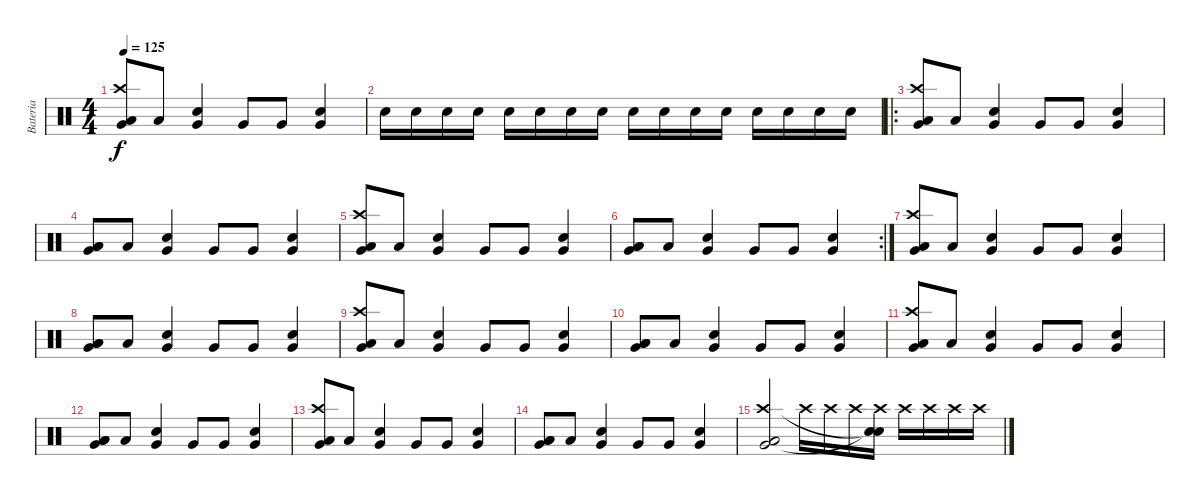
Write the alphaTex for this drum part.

\track ("Bateria" "Bateria") {instrument percussion}
\staff {score}
\articulation defaults
\ts (4 4)
\tempo 125
\clef neutral
\ks c
("Low Tom (hit)" "Crash high (hit)" "Very Low Tom (hit)").8{dy f} "Low Floor Tom (hit)".8 ("Electric Snare (hit)" "Very Low Tom (hit)").4 "Very Low Tom (hit)".8 "Very Low Tom (hit)".8 ("Electric Snare (hit)" "Very Low Tom (hit)").4 |
"Electric Snare (hit)".16 "Electric Snare (hit)".16 "Electric Snare (hit)".16 "Electric Snare (hit)".16 "Electric Snare (hit)".16 "Electric Snare (hit)".16 "Electric Snare (hit)".16 "Electric Snare (hit)".16 "Electric Snare (hit)".16 "Electric Snare (hit)".16 "Electric Snare (hit)".16 "Electric Snare (hit)".16 "Electric Snare (hit)".16 "Electric Snare (hit)".16 "Electric Snare (hit)".16 "Electric Snare (hit)".16 |
\ro
("Low Tom (hit)" "Crash high (hit)" "Very Low Tom (hit)").8 "Low Floor Tom (hit)".8 ("Electric Snare (hit)" "Very Low Tom (hit)").4 "Very Low Tom (hit)".8 "Very Low Tom (hit)".8 ("Electric Snare (hit)" "Very Low Tom (hit)").4 |
("Low Tom (hit)" "Low Floor Tom (hit)" "Very Low Tom (hit)").8 "Low Floor Tom (hit)".8 ("Electric Snare (hit)" "Very Low Tom (hit)").4 "Very Low Tom (hit)".8 "Very Low Tom (hit)".8 ("Electric Snare (hit)" "Very Low Tom (hit)").4 |
("Low Tom (hit)" "Crash high (hit)" "Very Low Tom (hit)").8 "Low Floor Tom (hit)".8 ("Electric Snare (hit)" "Very Low Tom (hit)").4 "Very Low Tom (hit)".8 "Very Low Tom (hit)".8 ("Electric Snare (hit)" "Very Low Tom (hit)").4 |
\rc 2
("Low Tom (hit)" "Low Floor Tom (hit)" "Very Low Tom (hit)").8 "Low Floor Tom (hit)".8 ("Electric Snare (hit)" "Very Low Tom (hit)").4 "Very Low Tom (hit)".8 "Very Low Tom (hit)".8 ("Electric Snare (hit)" "Very Low Tom (hit)").4 |
("Low Tom (hit)" "Crash high (hit)" "Very Low Tom (hit)").8 "Low Floor Tom (hit)".8 ("Electric Snare (hit)" "Very Low Tom (hit)").4 "Very Low Tom (hit)".8 "Very Low Tom (hit)".8 ("Electric Snare (hit)" "Very Low Tom (hit)").4 |
("Low Tom (hit)" "Low Floor Tom (hit)" "Very Low Tom (hit)").8 "Low Floor Tom (hit)".8 ("Electric Snare (hit)" "Very Low Tom (hit)").4 "Very Low Tom (hit)".8 "Very Low Tom (hit)".8 ("Electric Snare (hit)" "Very Low Tom (hit)").4 |
("Low Tom (hit)" "Crash high (hit)" "Very Low Tom (hit)").8 "Low Floor Tom (hit)".8 ("Electric Snare (hit)" "Very Low Tom (hit)").4 "Very Low Tom (hit)".8 "Very Low Tom (hit)".8 ("Electric Snare (hit)" "Very Low Tom (hit)").4 |
("Low Tom (hit)" "Low Floor Tom (hit)" "Very Low Tom (hit)").8 "Low Floor Tom (hit)".8 ("Electric Snare (hit)" "Very Low Tom (hit)").4 "Very Low Tom (hit)".8 "Very Low Tom (hit)".8 ("Electric Snare (hit)" "Very Low Tom (hit)").4 |
("Low Tom (hit)" "Crash high (hit)" "Very Low Tom (hit)").8 "Low Floor Tom (hit)".8 ("Electric Snare (hit)" "Very Low Tom (hit)").4 "Very Low Tom (hit)".8 "Very Low Tom (hit)".8 ("Electric Snare (hit)" "Very Low Tom (hit)").4 |
("Low Tom (hit)" "Low Floor Tom (hit)" "Very Low Tom (hit)").8 "Low Floor Tom (hit)".8 ("Electric Snare (hit)" "Very Low Tom (hit)").4 "Very Low Tom (hit)".8 "Very Low Tom (hit)".8 ("Electric Snare (hit)" "Very Low Tom (hit)").4 |
("Low Tom (hit)" "Crash high (hit)" "Very Low Tom (hit)").8 "Low Floor Tom (hit)".8 ("Electric Snare (hit)" "Very Low Tom (hit)").4 "Very Low Tom (hit)".8 "Very Low Tom (hit)".8 ("Electric Snare (hit)" "Very Low Tom (hit)").4 |
("Low Tom (hit)" "Low Floor Tom (hit)" "Very Low Tom (hit)").8 "Low Floor Tom (hit)".8 ("Electric Snare (hit)" "Very Low Tom (hit)").4 "Very Low Tom (hit)".8 "Very Low Tom (hit)".8 ("Electric Snare (hit)" "Very Low Tom (hit)").4 |
("Low Tom (hit)" "Crash high (hit)" "Very Low Tom (hit)").2 "Crash high (hit)".16 "Crash high (hit)".16 "Crash high (hit)".16 ("Crash high (hit)" "Snare (hit)"{t} "Snare (hit)"{t}).16 "Crash high (hit)".16 "Crash high (hit)".16 "Crash high (hit)".16 "Crash high (hit)".16
